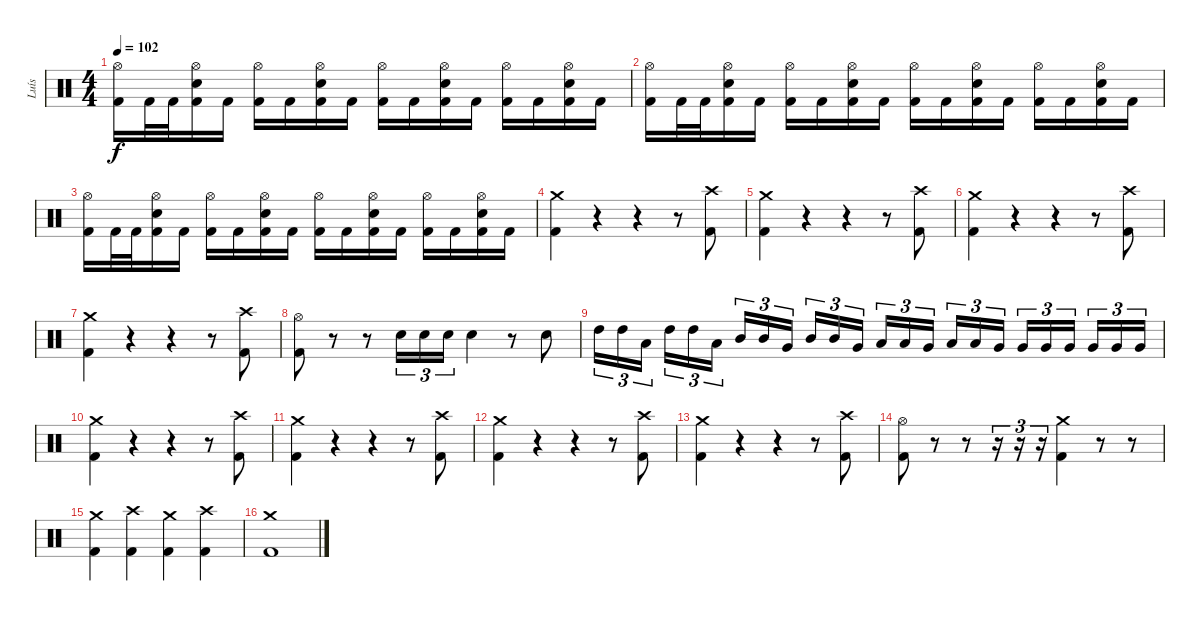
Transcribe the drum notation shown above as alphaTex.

\track ("Luís" "Luís") {instrument percussion}
\staff {score}
\articulation defaults
\ts (4 4)
\tempo 102
\clef neutral
\ks c
("Hi-Hat (open)" "Kick (hit) 2").16{dy f} "Kick (hit) 2".32 "Kick (hit) 2".32 ("Hi-Hat (open)" "Snare (hit) 2" "Kick (hit) 2").16 "Kick (hit) 2".16 ("Hi-Hat (open)" "Kick (hit) 2").16 "Kick (hit) 2".16 ("Hi-Hat (open)" "Snare (hit) 2" "Kick (hit) 2").16 "Kick (hit) 2".16 ("Hi-Hat (open)" "Kick (hit) 2").16 "Kick (hit) 2".16 ("Hi-Hat (open)" "Snare (hit) 2" "Kick (hit) 2").16 "Kick (hit) 2".16 ("Hi-Hat (open)" "Kick (hit) 2").16 "Kick (hit) 2".16 ("Hi-Hat (open)" "Snare (hit) 2" "Kick (hit) 2").16 "Kick (hit) 2".16 |
("Hi-Hat (open)" "Kick (hit) 2").16 "Kick (hit) 2".32 "Kick (hit) 2".32 ("Hi-Hat (open)" "Snare (hit) 2" "Kick (hit) 2").16 "Kick (hit) 2".16 ("Hi-Hat (open)" "Kick (hit) 2").16 "Kick (hit) 2".16 ("Hi-Hat (open)" "Snare (hit) 2" "Kick (hit) 2").16 "Kick (hit) 2".16 ("Hi-Hat (open)" "Kick (hit) 2").16 "Kick (hit) 2".16 ("Hi-Hat (open)" "Snare (hit) 2" "Kick (hit) 2").16 "Kick (hit) 2".16 ("Hi-Hat (open)" "Kick (hit) 2").16 "Kick (hit) 2".16 ("Hi-Hat (open)" "Snare (hit) 2" "Kick (hit) 2").16 "Kick (hit) 2".16 |
("Hi-Hat (open)" "Kick (hit) 2").16 "Kick (hit) 2".32 "Kick (hit) 2".32 ("Hi-Hat (open)" "Snare (hit) 2" "Kick (hit) 2").16 "Kick (hit) 2".16 ("Hi-Hat (open)" "Kick (hit) 2").16 "Kick (hit) 2".16 ("Hi-Hat (open)" "Snare (hit) 2" "Kick (hit) 2").16 "Kick (hit) 2".16 ("Hi-Hat (open)" "Kick (hit) 2").16 "Kick (hit) 2".16 ("Hi-Hat (open)" "Snare (hit) 2" "Kick (hit) 2").16 "Kick (hit) 2".16 ("Hi-Hat (open)" "Kick (hit) 2").16 "Kick (hit) 2".16 ("Hi-Hat (open)" "Snare (hit) 2" "Kick (hit) 2").16 "Kick (hit) 2".16 |
("Crash medium (hit)" "Kick (hit) 2").4 r.4 r.4 r.8 ("Crash high (hit)" "Kick (hit) 2").8 |
("Crash medium (hit)" "Kick (hit) 2").4 r.4 r.4 r.8 ("Crash high (hit)" "Kick (hit) 2").8 |
("Crash medium (hit)" "Kick (hit) 2").4 r.4 r.4 r.8 ("Crash high (hit)" "Kick (hit) 2").8 |
("Crash medium (hit)" "Kick (hit) 2").4 r.4 r.4 r.8 ("Crash high (hit)" "Kick (hit) 2").8 |
("Hi-Hat (open)" "Kick (hit) 2").8 r.8 r.8 "Snare (hit) 2".16{tu (3 2)} "Snare (hit) 2".16{tu (3 2)} "Snare (hit) 2".16{tu (3 2)} "Snare (hit) 2".4 r.8 "Snare (hit) 2".8 |
"High Tom (hit)".16{tu (3 2)} "High Tom (hit)".16{tu (3 2)} "Low Tom (hit)".16{tu (3 2)} "High Tom (hit)".16{tu (3 2)} "High Tom (hit)".16{tu (3 2)} "Low Tom (hit)".16{tu (3 2)} "Mid Tom (hit)".16{tu (3 2)} "Mid Tom (hit)".16{tu (3 2)} "Very Low Tom (hit)".16{tu (3 2)} "Mid Tom (hit)".16{tu (3 2)} "Mid Tom (hit)".16{tu (3 2)} "Very Low Tom (hit)".16{tu (3 2)} "Low Tom (hit)".16{tu (3 2)} "Low Tom (hit)".16{tu (3 2)} "Very Low Tom (hit)".16{tu (3 2)} "Low Tom (hit)".16{tu (3 2)} "Low Tom (hit)".16{tu (3 2)} "Very Low Tom (hit)".16{tu (3 2)} "Very Low Tom (hit)".16{tu (3 2)} "Very Low Tom (hit)".16{tu (3 2)} "Very Low Tom (hit)".16{tu (3 2)} "Very Low Tom (hit)".16{tu (3 2)} "Very Low Tom (hit)".16{tu (3 2)} "Very Low Tom (hit)".16{tu (3 2)} |
("Crash medium (hit)" "Kick (hit) 2").4 r.4 r.4 r.8 ("Crash high (hit)" "Kick (hit) 2").8 |
("Crash medium (hit)" "Kick (hit) 2").4 r.4 r.4 r.8 ("Crash high (hit)" "Kick (hit) 2").8 |
("Crash medium (hit)" "Kick (hit) 2").4 r.4 r.4 r.8 ("Crash high (hit)" "Kick (hit) 2").8 |
("Crash medium (hit)" "Kick (hit) 2").4 r.4 r.4 r.8 ("Crash high (hit)" "Kick (hit) 2").8 |
("Hi-Hat (open)" "Kick (hit) 2").8 r.8 r.8 r.16{tu (3 2)} r.16{tu (3 2)} r.16{tu (3 2)} ("Crash medium (hit)" "Kick (hit) 2").4 r.8 r.8 |
("Crash medium (hit)" "Kick (hit) 2").4 ("Crash high (hit)" "Kick (hit) 2").4 ("Crash medium (hit)" "Kick (hit) 2").4 ("Crash high (hit)" "Kick (hit) 2").4 |
("Crash medium (hit)" "Kick (hit) 2").1
